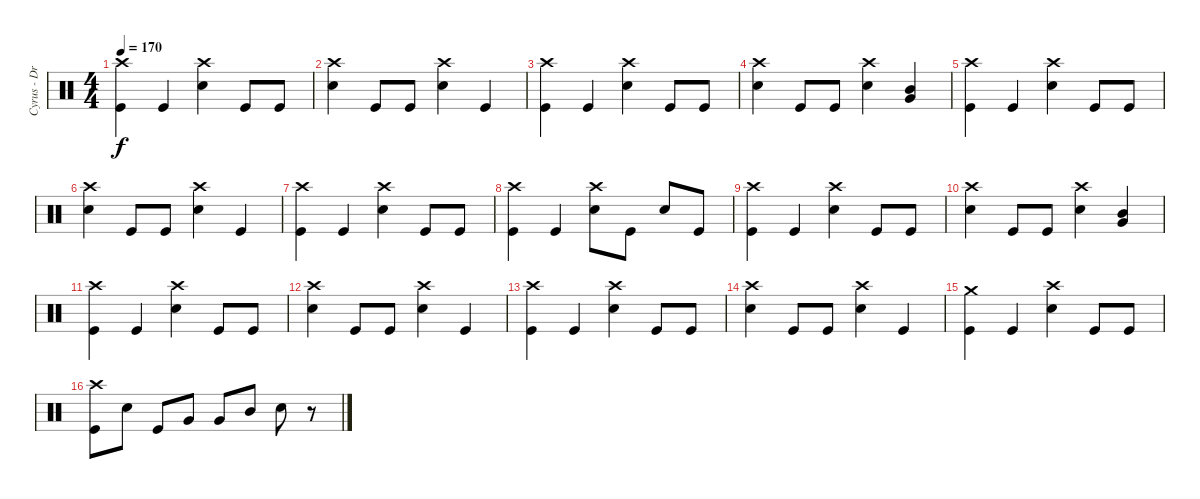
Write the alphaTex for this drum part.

\track ("Cyrus - Drums" "Cyrus - Dr") {instrument percussion}
\staff {score}
\articulation defaults
\ts (4 4)
\tempo 170
\clef neutral
\ks c
("Crash high (hit)" "Kick (hit)").4{dy f} "Kick (hit)".4 ("Crash high (hit)" "Electric Snare (hit)").4 "Kick (hit)".8 "Kick (hit)".8 |
("Crash high (hit)" "Electric Snare (hit)").4 "Kick (hit)".8 "Kick (hit)".8 ("Crash high (hit)" "Electric Snare (hit)").4 "Kick (hit)".4 |
("Crash high (hit)" "Kick (hit)").4 "Kick (hit)".4 ("Crash high (hit)" "Electric Snare (hit)").4 "Kick (hit)".8 "Kick (hit)".8 |
("Crash high (hit)" "Electric Snare (hit)").4 "Kick (hit)".8 "Kick (hit)".8 ("Crash high (hit)" "Electric Snare (hit)").4 ("Mid Tom (hit)" "Very Low Tom (hit)").4 |
("Crash high (hit)" "Kick (hit)").4 "Kick (hit)".4 ("Crash high (hit)" "Electric Snare (hit)").4 "Kick (hit)".8 "Kick (hit)".8 |
("Crash high (hit)" "Electric Snare (hit)").4 "Kick (hit)".8 "Kick (hit)".8 ("Crash high (hit)" "Electric Snare (hit)").4 "Kick (hit)".4 |
("Crash high (hit)" "Kick (hit)").4 "Kick (hit)".4 ("Crash high (hit)" "Electric Snare (hit)").4 "Kick (hit)".8 "Kick (hit)".8 |
("Crash high (hit)" "Kick (hit)").4 "Kick (hit)".4 ("Crash high (hit)" "Electric Snare (hit)").8 "Kick (hit)".8 "Electric Snare (hit)".8 "Kick (hit)".8 |
("Crash high (hit)" "Kick (hit)").4 "Kick (hit)".4 ("Crash high (hit)" "Electric Snare (hit)").4 "Kick (hit)".8 "Kick (hit)".8 |
("Crash high (hit)" "Electric Snare (hit)").4 "Kick (hit)".8 "Kick (hit)".8 ("Crash high (hit)" "Electric Snare (hit)").4 ("Very Low Tom (hit)" "Mid Tom (hit)").4 |
("Crash high (hit)" "Kick (hit)").4 "Kick (hit)".4 ("Crash high (hit)" "Electric Snare (hit)").4 "Kick (hit)".8 "Kick (hit)".8 |
("Crash high (hit)" "Electric Snare (hit)").4 "Kick (hit)".8 "Kick (hit)".8 ("Crash high (hit)" "Electric Snare (hit)").4 "Kick (hit)".4 |
("Crash high (hit)" "Kick (hit)").4 "Kick (hit)".4 ("Crash high (hit)" "Electric Snare (hit)").4 "Kick (hit)".8 "Kick (hit)".8 |
("Crash high (hit)" "Electric Snare (hit)").4 "Kick (hit)".8 "Kick (hit)".8 ("Crash high (hit)" "Electric Snare (hit)").4 "Kick (hit)".4 |
("Crash medium (hit)" "Kick (hit)").4 "Kick (hit)".4 ("Crash high (hit)" "Electric Snare (hit)").4 "Kick (hit)".8 "Kick (hit)".8 |
("Crash high (hit)" "Kick (hit)").8 "Electric Snare (hit)".8 "Kick (hit)".8 "Very Low Tom (hit)".8 "Very Low Tom (hit)".8 "Mid Tom (hit)".8 "Electric Snare (hit)".8 r.8
